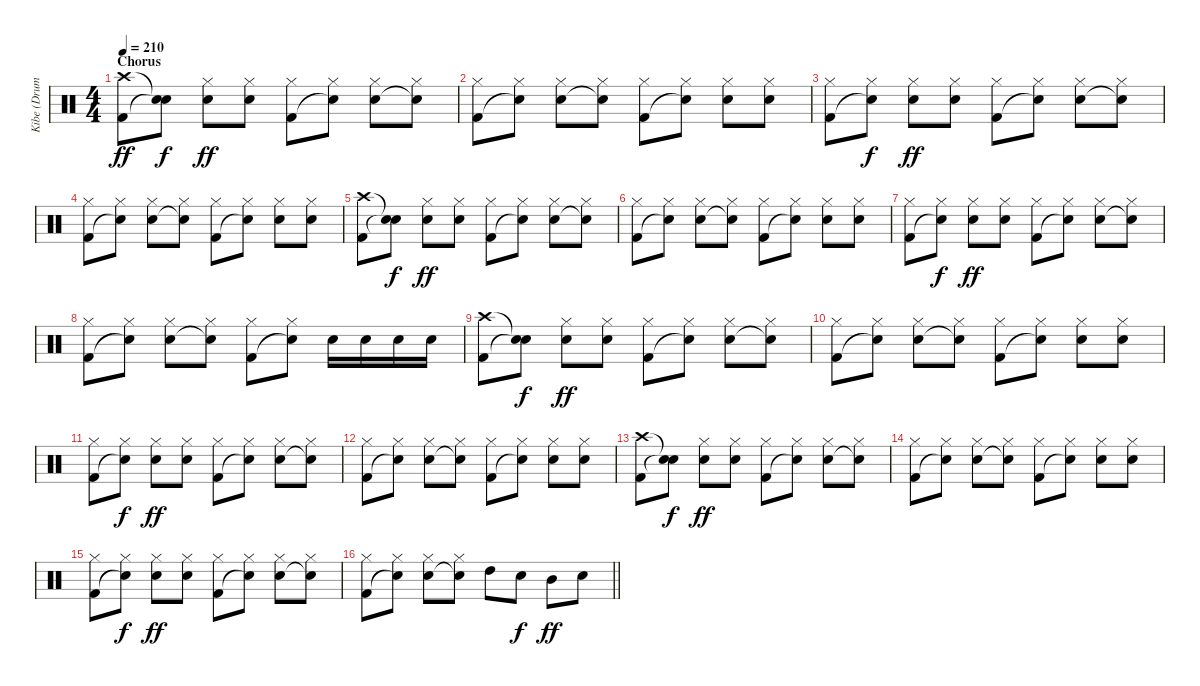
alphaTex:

\track ("Kibe (Drums)" "Kibe (Drum") {instrument percussion}
\staff {score}
\articulation defaults
\ts (4 4)
\section ("" "Chorus")
\tempo 210
\clef neutral
\ks c
("Crash high (hit)" "Kick (hit) 2").8{dy ff} ("Snare (hit)"{t} "Snare (hit)"{t}).8{dy f} ("Hi-Hat (closed)" "Snare (hit) 2").8{dy ff} ("Hi-Hat (closed)" "Snare (hit) 2").8 ("Hi-Hat (closed)" "Kick (hit) 2").8 ("Hi-Hat (closed)" "Snare (hit)"{t}).8 ("Hi-Hat (closed)" "Snare (hit) 2").8 ("Hi-Hat (closed)" "Snare (hit)"{t}).8 |
("Hi-Hat (closed)" "Kick (hit) 2").8 ("Hi-Hat (closed)" "Snare (hit)"{t}).8 ("Hi-Hat (closed)" "Snare (hit) 2").8 ("Hi-Hat (closed)" "Snare (hit)"{t}).8 ("Hi-Hat (closed)" "Kick (hit) 2").8 ("Hi-Hat (closed)" "Snare (hit)"{t}).8 ("Hi-Hat (closed)" "Snare (hit) 2").8 ("Hi-Hat (closed)" "Snare (hit) 2").8 |
("Hi-Hat (closed)" "Kick (hit) 2").8 ("Hi-Hat (closed)" "Snare (hit)"{t}).8{dy f} ("Hi-Hat (closed)" "Snare (hit) 2").8{dy ff} ("Hi-Hat (closed)" "Snare (hit) 2").8 ("Hi-Hat (closed)" "Kick (hit) 2").8 ("Hi-Hat (closed)" "Snare (hit)"{t}).8 ("Hi-Hat (closed)" "Snare (hit) 2").8 ("Hi-Hat (closed)" "Snare (hit)"{t}).8 |
("Hi-Hat (closed)" "Kick (hit) 2").8 ("Hi-Hat (closed)" "Snare (hit)"{t}).8 ("Hi-Hat (closed)" "Snare (hit) 2").8 ("Hi-Hat (closed)" "Snare (hit)"{t}).8 ("Hi-Hat (closed)" "Kick (hit) 2").8 ("Hi-Hat (closed)" "Snare (hit)"{t}).8 ("Hi-Hat (closed)" "Snare (hit) 2").8 ("Hi-Hat (closed)" "Snare (hit) 2").8 |
("Crash high (hit)" "Kick (hit) 2").8 ("Snare (hit)"{t} "Snare (hit)"{t}).8{dy f} ("Hi-Hat (closed)" "Snare (hit) 2").8{dy ff} ("Hi-Hat (closed)" "Snare (hit) 2").8 ("Hi-Hat (closed)" "Kick (hit) 2").8 ("Hi-Hat (closed)" "Snare (hit)"{t}).8 ("Hi-Hat (closed)" "Snare (hit) 2").8 ("Hi-Hat (closed)" "Snare (hit)"{t}).8 |
("Hi-Hat (closed)" "Kick (hit) 2").8 ("Hi-Hat (closed)" "Snare (hit)"{t}).8 ("Hi-Hat (closed)" "Snare (hit) 2").8 ("Hi-Hat (closed)" "Snare (hit)"{t}).8 ("Hi-Hat (closed)" "Kick (hit) 2").8 ("Hi-Hat (closed)" "Snare (hit)"{t}).8 ("Hi-Hat (closed)" "Snare (hit) 2").8 ("Hi-Hat (closed)" "Snare (hit) 2").8 |
("Hi-Hat (closed)" "Kick (hit) 2").8 ("Hi-Hat (closed)" "Snare (hit)"{t}).8{dy f} ("Hi-Hat (closed)" "Snare (hit) 2").8{dy ff} ("Hi-Hat (closed)" "Snare (hit) 2").8 ("Hi-Hat (closed)" "Kick (hit) 2").8 ("Hi-Hat (closed)" "Snare (hit)"{t}).8 ("Hi-Hat (closed)" "Snare (hit) 2").8 ("Hi-Hat (closed)" "Snare (hit)"{t}).8 |
("Hi-Hat (closed)" "Kick (hit) 2").8 ("Hi-Hat (closed)" "Snare (hit)"{t}).8 ("Hi-Hat (closed)" "Snare (hit) 2").8 ("Hi-Hat (closed)" "Snare (hit)"{t}).8 ("Hi-Hat (closed)" "Kick (hit) 2").8 ("Hi-Hat (closed)" "Snare (hit)"{t}).8 "Snare (hit) 2".16 "Snare (hit) 2".16 "Snare (hit) 2".16 "Snare (hit) 2".16 |
("Crash high (hit)" "Kick (hit) 2").8 ("Snare (hit)"{t} "Snare (hit)"{t}).8{dy f} ("Hi-Hat (closed)" "Snare (hit) 2").8{dy ff} ("Hi-Hat (closed)" "Snare (hit) 2").8 ("Hi-Hat (closed)" "Kick (hit) 2").8 ("Hi-Hat (closed)" "Snare (hit)"{t}).8 ("Hi-Hat (closed)" "Snare (hit) 2").8 ("Hi-Hat (closed)" "Snare (hit)"{t}).8 |
("Hi-Hat (closed)" "Kick (hit) 2").8 ("Hi-Hat (closed)" "Snare (hit)"{t}).8 ("Hi-Hat (closed)" "Snare (hit) 2").8 ("Hi-Hat (closed)" "Snare (hit)"{t}).8 ("Hi-Hat (closed)" "Kick (hit) 2").8 ("Hi-Hat (closed)" "Snare (hit)"{t}).8 ("Hi-Hat (closed)" "Snare (hit) 2").8 ("Hi-Hat (closed)" "Snare (hit) 2").8 |
("Hi-Hat (closed)" "Kick (hit) 2").8 ("Hi-Hat (closed)" "Snare (hit)"{t}).8{dy f} ("Hi-Hat (closed)" "Snare (hit) 2").8{dy ff} ("Hi-Hat (closed)" "Snare (hit) 2").8 ("Hi-Hat (closed)" "Kick (hit) 2").8 ("Hi-Hat (closed)" "Snare (hit)"{t}).8 ("Hi-Hat (closed)" "Snare (hit) 2").8 ("Hi-Hat (closed)" "Snare (hit)"{t}).8 |
("Hi-Hat (closed)" "Kick (hit) 2").8 ("Hi-Hat (closed)" "Snare (hit)"{t}).8 ("Hi-Hat (closed)" "Snare (hit) 2").8 ("Hi-Hat (closed)" "Snare (hit)"{t}).8 ("Hi-Hat (closed)" "Kick (hit) 2").8 ("Hi-Hat (closed)" "Snare (hit)"{t}).8 ("Hi-Hat (closed)" "Snare (hit) 2").8 ("Hi-Hat (closed)" "Snare (hit) 2").8 |
("Crash high (hit)" "Kick (hit) 2").8 ("Snare (hit)"{t} "Snare (hit)"{t}).8{dy f} ("Hi-Hat (closed)" "Snare (hit) 2").8{dy ff} ("Hi-Hat (closed)" "Snare (hit) 2").8 ("Hi-Hat (closed)" "Kick (hit) 2").8 ("Hi-Hat (closed)" "Snare (hit)"{t}).8 ("Hi-Hat (closed)" "Snare (hit) 2").8 ("Hi-Hat (closed)" "Snare (hit)"{t}).8 |
("Hi-Hat (closed)" "Kick (hit) 2").8 ("Hi-Hat (closed)" "Snare (hit)"{t}).8 ("Hi-Hat (closed)" "Snare (hit) 2").8 ("Hi-Hat (closed)" "Snare (hit)"{t}).8 ("Hi-Hat (closed)" "Kick (hit) 2").8 ("Hi-Hat (closed)" "Snare (hit)"{t}).8 ("Hi-Hat (closed)" "Snare (hit) 2").8 ("Hi-Hat (closed)" "Snare (hit) 2").8 |
("Hi-Hat (closed)" "Kick (hit) 2").8 ("Hi-Hat (closed)" "Snare (hit)"{t}).8{dy f} ("Hi-Hat (closed)" "Snare (hit) 2").8{dy ff} ("Hi-Hat (closed)" "Snare (hit) 2").8 ("Hi-Hat (closed)" "Kick (hit) 2").8 ("Hi-Hat (closed)" "Snare (hit)"{t}).8 ("Hi-Hat (closed)" "Snare (hit) 2").8 ("Hi-Hat (closed)" "Snare (hit)"{t}).8 |
\barLineRight lightlight
("Hi-Hat (closed)" "Kick (hit) 2").8 ("Hi-Hat (closed)" "Snare (hit)"{t}).8 ("Hi-Hat (closed)" "Snare (hit) 2").8 ("Hi-Hat (closed)" "Snare (hit)"{t}).8 "High Tom (hit)".8 "Snare (hit) 2".8{dy f} "Mid Tom (hit)".8{dy ff} "Snare (hit) 2".8
